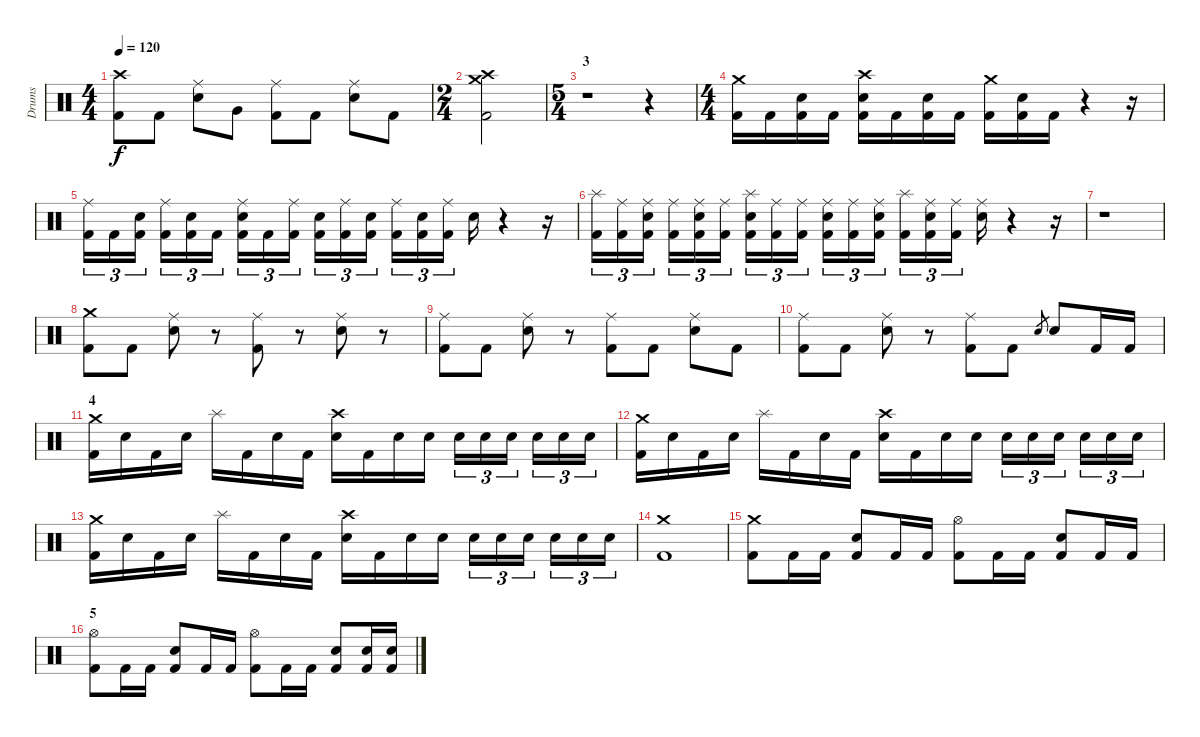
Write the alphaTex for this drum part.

\track ("Drums" "Drums") {instrument percussion}
\staff {score}
\articulation defaults
\ts (4 4)
\tempo 120
\clef neutral
\ks c
("Crash high (hit)" "Kick (hit) 2").8{dy f} "Kick (hit) 2".8 ("Ride (middle)" "Electric Snare (hit)").8 "Very Low Tom (hit)".8 ("Ride (middle)" "Kick (hit) 2").8 "Kick (hit) 2".8 ("Ride (middle)" "Electric Snare (hit)").8 "Kick (hit) 2".8 |
\ts (2 4)
("Crash medium (hit)" "Crash high (hit)" "Kick (hit) 2").2 |
\ts (5 4)
\section ("" "3")
r.1 r.4 |
\ts (4 4)
("Crash medium (hit)" "Kick (hit) 2").16 "Kick (hit) 2".16 ("Electric Snare (hit)" "Kick (hit) 2").16 "Kick (hit) 2".16 ("Crash high (hit)" "Electric Snare (hit)" "Kick (hit) 2").16 "Kick (hit) 2".16 ("Electric Snare (hit)" "Kick (hit) 2").16 "Kick (hit) 2".16 ("Crash medium (hit)" "Kick (hit) 2").16 ("Electric Snare (hit)" "Kick (hit) 2").16 "Kick (hit) 2".16 r.4 r.16 |
("Ride (middle)" "Kick (hit) 2").16{tu (3 2)} "Kick (hit) 2".16{tu (3 2)} ("Electric Snare (hit)" "Kick (hit) 2").16{tu (3 2)} ("Ride (middle)" "Kick (hit) 2").16{tu (3 2)} ("Electric Snare (hit)" "Kick (hit) 2").16{tu (3 2)} "Kick (hit) 2".16{tu (3 2)} ("Ride (middle)" "Electric Snare (hit)" "Kick (hit) 2").16{tu (3 2)} "Kick (hit) 2".16{tu (3 2)} ("Ride (middle)" "Kick (hit) 2").16{tu (3 2)} ("Electric Snare (hit)" "Kick (hit) 2").16{tu (3 2)} ("Ride (middle)" "Kick (hit) 2").16{tu (3 2)} ("Electric Snare (hit)" "Kick (hit) 2").16{tu (3 2)} ("Ride (middle)" "Kick (hit) 2").16{tu (3 2)} ("Electric Snare (hit)" "Kick (hit) 2").16{tu (3 2)} ("Ride (middle)" "Kick (hit) 2").16{tu (3 2)} "Electric Snare (hit)".16 r.4 r.16 |
("Splash (hit)" "Kick (hit) 2").16{tu (3 2)} ("Ride (middle)" "Kick (hit) 2").16{tu (3 2)} ("Ride (middle)" "Electric Snare (hit)" "Kick (hit) 2").16{tu (3 2)} ("Ride (middle)" "Kick (hit) 2").16{tu (3 2)} ("Ride (middle)" "Electric Snare (hit)" "Kick (hit) 2").16{tu (3 2)} ("Ride (middle)" "Kick (hit) 2").16{tu (3 2)} ("Splash (hit)" "Electric Snare (hit)" "Kick (hit) 2").16{tu (3 2)} ("Ride (middle)" "Kick (hit) 2").16{tu (3 2)} ("Ride (middle)" "Kick (hit) 2").16{tu (3 2)} ("Ride (middle)" "Electric Snare (hit)" "Kick (hit) 2").16{tu (3 2)} ("Ride (middle)" "Kick (hit) 2").16{tu (3 2)} ("Ride (middle)" "Electric Snare (hit)" "Kick (hit) 2").16{tu (3 2)} ("Splash (hit)" "Kick (hit) 2").16{tu (3 2)} ("Ride (middle)" "Electric Snare (hit)" "Kick (hit) 2").16{tu (3 2)} ("Ride (middle)" "Kick (hit) 2").16{tu (3 2)} ("Ride (middle)" "Electric Snare (hit)").16 r.4 r.16 |
r.1 |
("Crash medium (hit)" "Kick (hit) 2").8 "Kick (hit) 2".8 ("Ride (middle)" "Electric Snare (hit)").8 r.8 ("Ride (middle)" "Kick (hit) 2").8 r.8 ("Ride (middle)" "Electric Snare (hit)").8 r.8 |
("Ride (middle)" "Kick (hit) 2").8 "Kick (hit) 2".8 ("Ride (middle)" "Electric Snare (hit)").8 r.8 ("Ride (middle)" "Kick (hit) 2").8 "Kick (hit) 2".8 ("Ride (middle)" "Electric Snare (hit)").8 "Kick (hit) 2".8 |
("Ride (middle)" "Kick (hit) 2").8 "Kick (hit) 2".8 ("Ride (middle)" "Electric Snare (hit)").8 r.8 ("Ride (middle)" "Kick (hit) 2").8 "Kick (hit) 2".8 "Electric Snare (hit)".8{gr} "Electric Snare (hit)".8 "Kick (hit) 2".16 "Kick (hit) 2".16 |
\section ("" "4")
("Crash medium (hit)" "Kick (hit) 2").16 "Electric Snare (hit)".16 "Kick (hit) 2".16 "Electric Snare (hit)".16 "Splash (hit)".16 "Kick (hit) 2".16 "Electric Snare (hit)".16 "Kick (hit) 2".16 ("Crash high (hit)" "Electric Snare (hit)").16 "Kick (hit) 2".16 "Electric Snare (hit)".16 "Electric Snare (hit)".16 "Electric Snare (hit)".16{tu (3 2)} "Electric Snare (hit)".16{tu (3 2)} "Electric Snare (hit)".16{tu (3 2)} "Electric Snare (hit)".16{tu (3 2)} "Electric Snare (hit)".16{tu (3 2)} "Electric Snare (hit)".16{tu (3 2)} |
("Crash medium (hit)" "Kick (hit) 2").16 "Electric Snare (hit)".16 "Kick (hit) 2".16 "Electric Snare (hit)".16 "Splash (hit)".16 "Kick (hit) 2".16 "Electric Snare (hit)".16 "Kick (hit) 2".16 ("Crash high (hit)" "Electric Snare (hit)").16 "Kick (hit) 2".16 "Electric Snare (hit)".16 "Electric Snare (hit)".16 "Electric Snare (hit)".16{tu (3 2)} "Electric Snare (hit)".16{tu (3 2)} "Electric Snare (hit)".16{tu (3 2)} "Electric Snare (hit)".16{tu (3 2)} "Electric Snare (hit)".16{tu (3 2)} "Electric Snare (hit)".16{tu (3 2)} |
("Crash medium (hit)" "Kick (hit) 2").16 "Electric Snare (hit)".16 "Kick (hit) 2".16 "Electric Snare (hit)".16 "Splash (hit)".16 "Kick (hit) 2".16 "Electric Snare (hit)".16 "Kick (hit) 2".16 ("Crash high (hit)" "Electric Snare (hit)").16 "Kick (hit) 2".16 "Electric Snare (hit)".16 "Electric Snare (hit)".16 "Electric Snare (hit)".16{tu (3 2)} "Electric Snare (hit)".16{tu (3 2)} "Electric Snare (hit)".16{tu (3 2)} "Electric Snare (hit)".16{tu (3 2)} "Electric Snare (hit)".16{tu (3 2)} "Electric Snare (hit)".16{tu (3 2)} |
("Crash medium (hit)" "Kick (hit) 2").1 |
("Crash medium (hit)" "Kick (hit) 2").8{volume 11} "Kick (hit) 2".16 "Kick (hit) 2".16 ("Electric Snare (hit)" "Kick (hit) 2").8 "Kick (hit) 2".16 "Kick (hit) 2".16 ("Hi-Hat (open)" "Kick (hit) 2").8 "Kick (hit) 2".16 "Kick (hit) 2".16 ("Electric Snare (hit)" "Kick (hit) 2").8 "Kick (hit) 2".16 "Kick (hit) 2".16 |
\section ("" "5")
("Hi-Hat (open)" "Kick (hit) 2").8 "Kick (hit) 2".16 "Kick (hit) 2".16 ("Electric Snare (hit)" "Kick (hit) 2").8 "Kick (hit) 2".16 "Kick (hit) 2".16 ("Hi-Hat (open)" "Kick (hit) 2").8 "Kick (hit) 2".16 "Kick (hit) 2".16 ("Electric Snare (hit)" "Kick (hit) 2").8 ("Electric Snare (hit)" "Kick (hit) 2").16 ("Electric Snare (hit)" "Kick (hit) 2").16
